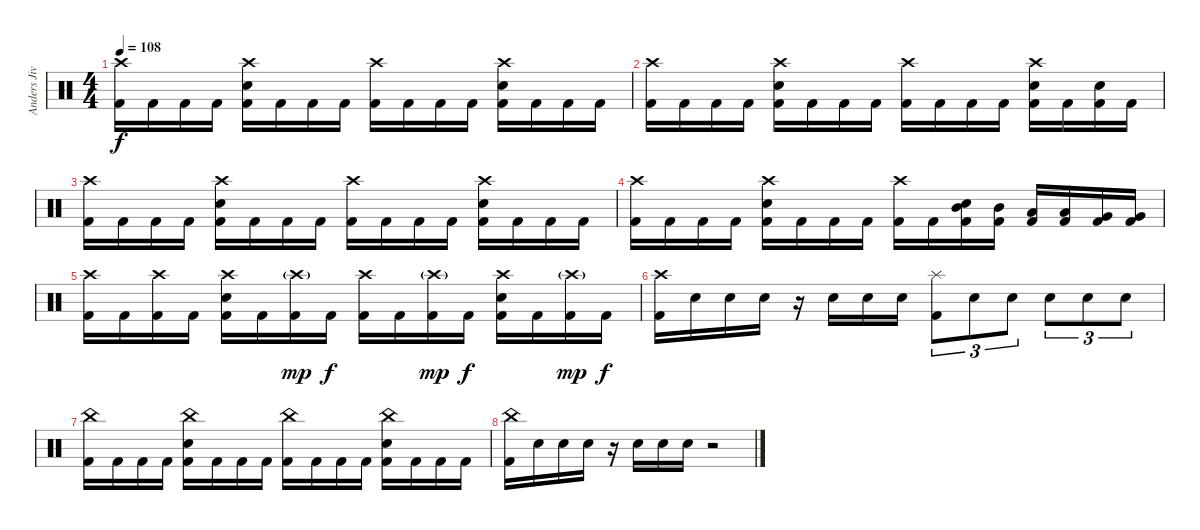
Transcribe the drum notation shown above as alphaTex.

\track ("Anders Jivarp" "Anders Jiv") {instrument percussion}
\staff {score}
\articulation defaults
\ts (4 4)
\tempo 108
\clef neutral
\ks c
("Crash high (hit)" "Kick (hit) 2").16{dy f} "Kick (hit) 2".16 "Kick (hit) 2".16 "Kick (hit) 2".16 ("Crash high (hit)" "Snare (hit) 2" "Kick (hit) 2").16 "Kick (hit) 2".16 "Kick (hit) 2".16 "Kick (hit) 2".16 ("Crash high (hit)" "Kick (hit) 2").16 "Kick (hit) 2".16 "Kick (hit) 2".16 "Kick (hit) 2".16 ("Crash high (hit)" "Snare (hit) 2" "Kick (hit) 2").16 "Kick (hit) 2".16 "Kick (hit) 2".16 "Kick (hit) 2".16 |
("Crash high (hit)" "Kick (hit) 2").16 "Kick (hit) 2".16 "Kick (hit) 2".16 "Kick (hit) 2".16 ("Crash high (hit)" "Snare (hit) 2" "Kick (hit) 2").16 "Kick (hit) 2".16 "Kick (hit) 2".16 "Kick (hit) 2".16 ("Crash high (hit)" "Kick (hit) 2").16 "Kick (hit) 2".16 "Kick (hit) 2".16 "Kick (hit) 2".16 ("Crash high (hit)" "Snare (hit) 2" "Kick (hit) 2").16 "Kick (hit) 2".16 ("Snare (hit) 2" "Kick (hit) 2").16 "Kick (hit) 2".16 |
("Crash high (hit)" "Kick (hit) 2").16 "Kick (hit) 2".16 "Kick (hit) 2".16 "Kick (hit) 2".16 ("Crash high (hit)" "Snare (hit) 2" "Kick (hit) 2").16 "Kick (hit) 2".16 "Kick (hit) 2".16 "Kick (hit) 2".16 ("Crash high (hit)" "Kick (hit) 2").16 "Kick (hit) 2".16 "Kick (hit) 2".16 "Kick (hit) 2".16 ("Crash high (hit)" "Snare (hit) 2" "Kick (hit) 2").16 "Kick (hit) 2".16 "Kick (hit) 2".16 "Kick (hit) 2".16 |
("Crash high (hit)" "Kick (hit) 2").16 "Kick (hit) 2".16 "Kick (hit) 2".16 "Kick (hit) 2".16 ("Crash high (hit)" "Snare (hit) 2" "Kick (hit) 2").16 "Kick (hit) 2".16 "Kick (hit) 2".16 "Kick (hit) 2".16 ("Crash high (hit)" "Kick (hit) 2").16 "Kick (hit) 2".16 ("Mid Tom (hit)" "Snare (hit) 2" "Kick (hit) 2").16 ("Mid Tom (hit)" "Kick (hit) 2").16 ("Low Tom (hit)" "Kick (hit) 2").16 ("Low Tom (hit)" "Kick (hit) 2").16 ("Very Low Tom (hit)" "Kick (hit) 2").16 ("Very Low Tom (hit)" "Kick (hit) 2").16 |
("Crash high (hit)" "Kick (hit) 2").16 "Kick (hit) 2".16 ("Crash high (hit)" "Kick (hit) 2").16 "Kick (hit) 2".16 ("Crash high (hit)" "Snare (hit) 2" "Kick (hit) 2").16 "Kick (hit) 2".16 ("Crash high (hit)"{g} "Kick (hit) 2").16{dy mp} "Kick (hit) 2".16{dy f} ("Crash high (hit)" "Kick (hit) 2").16 "Kick (hit) 2".16 ("Crash high (hit)"{g} "Kick (hit) 2").16{dy mp} "Kick (hit) 2".16{dy f} ("Crash high (hit)" "Snare (hit) 2" "Kick (hit) 2").16 "Kick (hit) 2".16 ("Crash high (hit)"{g} "Kick (hit) 2").16{dy mp} "Kick (hit) 2".16{dy f} |
("Crash high (hit)" "Kick (hit) 2").16 "Snare (hit) 2".16 "Snare (hit) 2".16 "Snare (hit) 2".16 r.16 "Snare (hit) 2".16 "Snare (hit) 2".16 "Snare (hit) 2".16 ("Splash (hit)" "Kick (hit) 2").8{tu (3 2)} "Snare (hit) 2".8{tu (3 2)} "Snare (hit) 2".8{tu (3 2)} "Snare (hit) 2".8{tu (3 2)} "Snare (hit) 2".8{tu (3 2)} "Snare (hit) 2".8{tu (3 2)} |
("China (hit)" "Kick (hit) 2").16 "Kick (hit) 2".16 "Kick (hit) 2".16 "Kick (hit) 2".16 ("China (hit)" "Snare (hit) 2" "Kick (hit) 2").16 "Kick (hit) 2".16 "Kick (hit) 2".16 "Kick (hit) 2".16 ("China (hit)" "Kick (hit) 2").16 "Kick (hit) 2".16 "Kick (hit) 2".16 "Kick (hit) 2".16 ("China (hit)" "Snare (hit) 2" "Kick (hit) 2").16 "Kick (hit) 2".16 "Kick (hit) 2".16 "Kick (hit) 2".16 |
("China (hit)" "Kick (hit) 2").16 "Snare (hit) 2".16 "Snare (hit) 2".16 "Snare (hit) 2".16 r.16 "Snare (hit) 2".16 "Snare (hit) 2".16 "Snare (hit) 2".16 r.2
